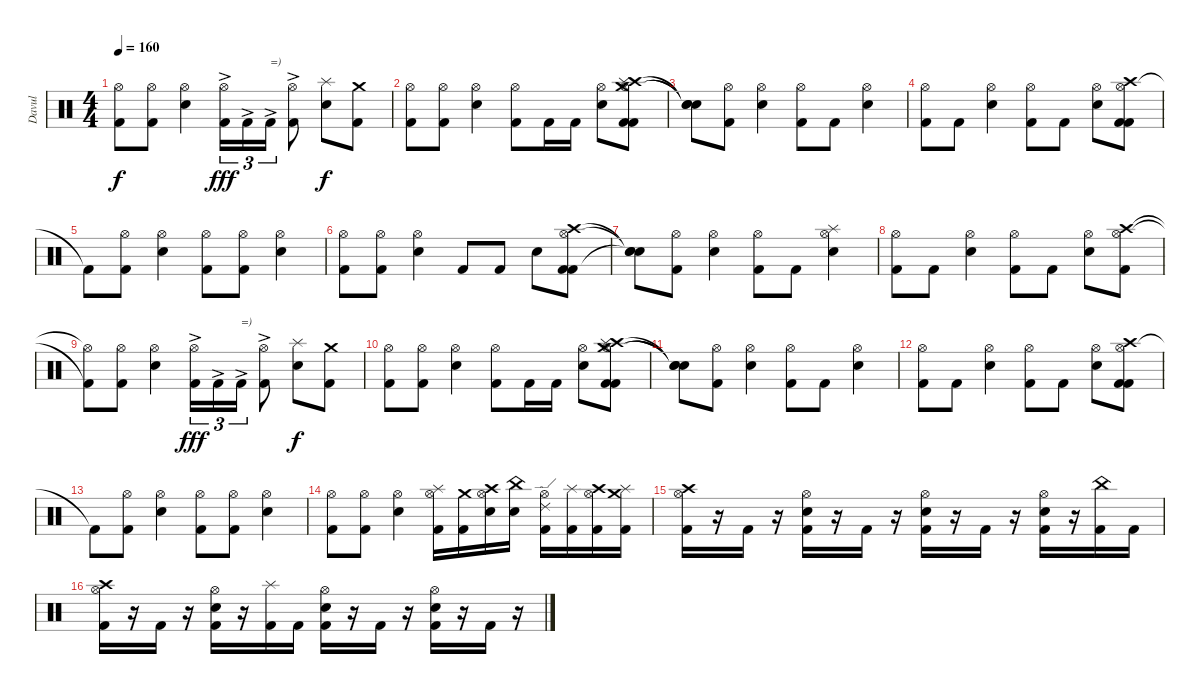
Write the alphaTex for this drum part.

\track ("Davul" "Davul") {instrument percussion}
\staff {score}
\articulation defaults
\ts (4 4)
\tempo 160
\clef neutral
\ks c
("Hi-Hat (open)"{t} "Kick (hit) 2"{t}).8{dy f} ("Hi-Hat (open)" "Kick (hit) 2").8 ("Hi-Hat (open)" "Electric Snare (hit)").4 ("Hi-Hat (open)" "Kick (hit) 2"{ac}).16{tu (3 2) dy fff} "Kick (hit) 2"{ac}.16{tu (3 2)} "Kick (hit) 2"{ac}.16{tu (3 2) txt "=)"} ("Hi-Hat (open)" "Kick (hit) 2"{ac}).8 ("Splash (hit)" "Electric Snare (hit)").8{dy f} ("Crash medium (hit)" "Kick (hit) 2").8 |
("Hi-Hat (open)" "Kick (hit) 2").8 ("Hi-Hat (open)" "Kick (hit) 2").8 ("Hi-Hat (open)" "Electric Snare (hit)").4 ("Hi-Hat (open)" "Kick (hit) 2").8 "Kick (hit) 2".16 "Kick (hit) 2".16 ("Hi-Hat (open)" "Electric Snare (hit)").8 ("Hi-Hat (open)" "Crash high (hit)" "Crash medium (hit)" "Splash (hit)" "Kick (hit) 2" "Kick (hit) 2").8 |
("Snare (hit)"{t} "Snare (hit)"{t} "Snare (hit)"{t}).8 ("Hi-Hat (open)" "Kick (hit) 2").8 ("Hi-Hat (open)" "Electric Snare (hit)").4 ("Hi-Hat (open)" "Kick (hit) 2").8 "Kick (hit) 2".8 ("Hi-Hat (open)" "Electric Snare (hit)").4 |
("Hi-Hat (open)" "Kick (hit) 2").8 "Kick (hit) 2".8 ("Hi-Hat (open)" "Electric Snare (hit)").4 ("Hi-Hat (open)" "Kick (hit) 2").8 "Kick (hit) 2".8 ("Hi-Hat (open)" "Electric Snare (hit)").8 ("Hi-Hat (open)" "Crash high (hit)" "Kick (hit) 2" "Kick (hit) 2").8 |
"Kick (hit) 2"{t}.8 ("Hi-Hat (open)" "Kick (hit) 2").8 ("Hi-Hat (open)" "Electric Snare (hit)").4 ("Hi-Hat (open)" "Kick (hit) 2").8 ("Hi-Hat (open)" "Kick (hit) 2").8 ("Hi-Hat (open)" "Electric Snare (hit)").4 |
("Hi-Hat (open)" "Kick (hit) 2").8 ("Hi-Hat (open)" "Kick (hit) 2").8 ("Hi-Hat (open)" "Electric Snare (hit)").4 "Kick (hit) 2".8 "Kick (hit) 2".8 "Electric Snare (hit)".8 ("Hi-Hat (open)" "Crash high (hit)" "Kick (hit) 2" "Kick (hit) 2").8 |
("Snare (hit)"{t} "Snare (hit)"{t} "Snare (hit)"{t}).8 ("Hi-Hat (open)" "Kick (hit) 2").8 ("Hi-Hat (open)" "Electric Snare (hit)").4 ("Hi-Hat (open)" "Kick (hit) 2").8 "Kick (hit) 2".8 ("Splash (hit)" "Hi-Hat (open)" "Electric Snare (hit)").4 |
("Hi-Hat (open)" "Kick (hit) 2").8 "Kick (hit) 2".8 ("Hi-Hat (open)" "Electric Snare (hit)").4 ("Hi-Hat (open)" "Kick (hit) 2").8 "Kick (hit) 2".8 ("Hi-Hat (open)" "Electric Snare (hit)").8 ("Crash high (hit)" "Hi-Hat (open)" "Kick (hit) 2").8 |
("Hi-Hat (open)"{t} "Kick (hit) 2"{t}).8 ("Hi-Hat (open)" "Kick (hit) 2").8 ("Hi-Hat (open)" "Electric Snare (hit)").4 ("Hi-Hat (open)" "Kick (hit) 2"{ac}).16{tu (3 2) dy fff} "Kick (hit) 2"{ac}.16{tu (3 2)} "Kick (hit) 2"{ac}.16{tu (3 2) txt "=)"} ("Hi-Hat (open)" "Kick (hit) 2"{ac}).8 ("Splash (hit)" "Electric Snare (hit)").8{dy f} ("Crash medium (hit)" "Kick (hit) 2").8 |
("Hi-Hat (open)" "Kick (hit) 2").8 ("Hi-Hat (open)" "Kick (hit) 2").8 ("Hi-Hat (open)" "Electric Snare (hit)").4 ("Hi-Hat (open)" "Kick (hit) 2").8 "Kick (hit) 2".16 "Kick (hit) 2".16 ("Hi-Hat (open)" "Electric Snare (hit)").8 ("Hi-Hat (open)" "Crash high (hit)" "Crash medium (hit)" "Splash (hit)" "Kick (hit) 2" "Kick (hit) 2").8 |
("Snare (hit)"{t} "Snare (hit)"{t} "Snare (hit)"{t}).8 ("Hi-Hat (open)" "Kick (hit) 2").8 ("Hi-Hat (open)" "Electric Snare (hit)").4 ("Hi-Hat (open)" "Kick (hit) 2").8 "Kick (hit) 2".8 ("Hi-Hat (open)" "Electric Snare (hit)").4 |
("Hi-Hat (open)" "Kick (hit) 2").8 "Kick (hit) 2".8 ("Hi-Hat (open)" "Electric Snare (hit)").4 ("Hi-Hat (open)" "Kick (hit) 2").8 "Kick (hit) 2".8 ("Hi-Hat (open)" "Electric Snare (hit)").8 ("Hi-Hat (open)" "Crash high (hit)" "Kick (hit) 2" "Kick (hit) 2").8 |
"Kick (hit) 2"{t}.8 ("Hi-Hat (open)" "Kick (hit) 2").8 ("Hi-Hat (open)" "Electric Snare (hit)").4 ("Hi-Hat (open)" "Kick (hit) 2").8 ("Hi-Hat (open)" "Kick (hit) 2").8 ("Hi-Hat (open)" "Electric Snare (hit)").4 |
("Hi-Hat (open)" "Kick (hit) 2").8 ("Hi-Hat (open)" "Kick (hit) 2").8 ("Hi-Hat (open)" "Electric Snare (hit)").4 ("Hi-Hat (open)" "Splash (hit)" "Kick (hit) 2").16 ("Crash medium (hit)" "Kick (hit) 2").16 ("Hi-Hat (open)" "Crash high (hit)" "Electric Snare (hit)").16 ("China (hit)" "Electric Snare (hit)").16 ("Hi-Hat (open)" "Ride (edge) 2" "Kick (hit) 2").16 ("Splash (hit)" "Kick (hit) 2").16 ("Hi-Hat (open)" "Crash high (hit)" "Kick (hit) 2").16 ("Crash medium (hit)" "Splash (hit)" "Kick (hit) 2").16 |
("Crash high (hit)" "Hi-Hat (open)" "Kick (hit) 2").16 r.16 "Kick (hit) 2".16 r.16 ("Hi-Hat (open)" "Electric Snare (hit)" "Kick (hit) 2").16 r.16 "Kick (hit) 2".16 r.16 ("Hi-Hat (open)" "Electric Snare (hit)" "Kick (hit) 2").16 r.16 "Kick (hit) 2".16 r.16 ("Hi-Hat (open)" "Electric Snare (hit)" "Kick (hit) 2").16 r.16 ("China (hit)" "Kick (hit) 2").16 "Kick (hit) 2".16 |
("Crash high (hit)" "Hi-Hat (open)" "Kick (hit) 2").16 r.16 "Kick (hit) 2".16 r.16 ("Hi-Hat (open)" "Electric Snare (hit)" "Kick (hit) 2").16 r.16 ("Splash (hit)" "Kick (hit) 2").16 "Kick (hit) 2".16 ("Hi-Hat (open)" "Electric Snare (hit)" "Kick (hit) 2").16 r.16 "Kick (hit) 2".16 r.16 ("Hi-Hat (open)" "Electric Snare (hit)" "Kick (hit) 2").16 r.16 "Kick (hit) 2".16 r.16
